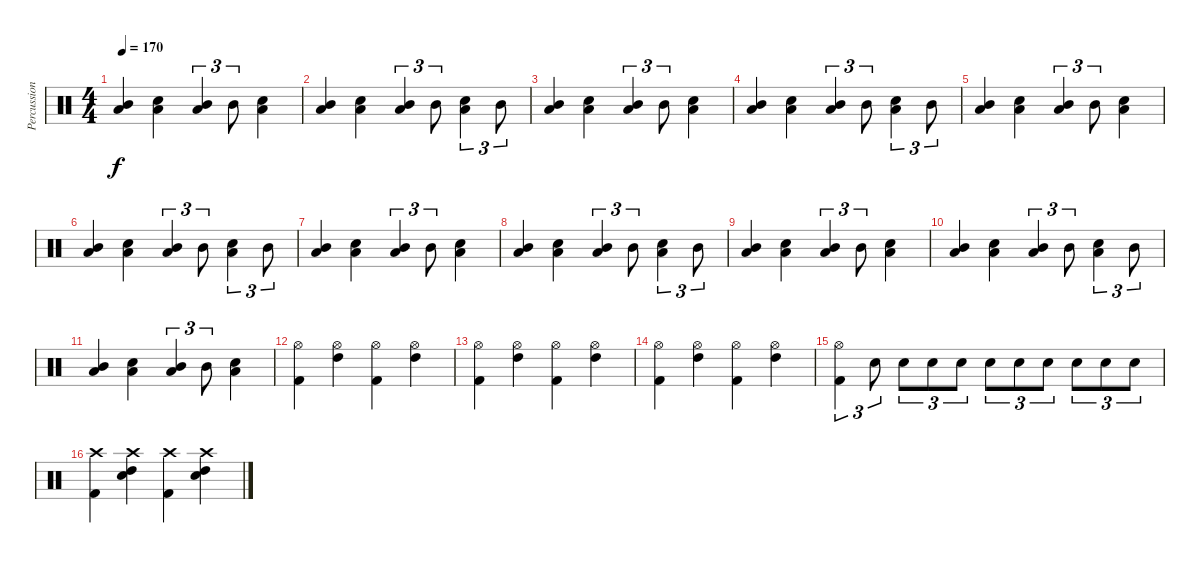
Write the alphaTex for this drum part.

\track ("Percussion" "Percussion") {instrument percussion}
\staff {score}
\articulation defaults
\ts (4 4)
\tempo 170
\clef neutral
\ks c
("Low Floor Tom (hit)" "Mid Tom (hit)").4{dy f} ("Low Floor Tom (hit)" "Snare (hit) 2").4 ("Low Floor Tom (hit)" "Mid Tom (hit)").4{tu (3 2)} "Mid Tom (hit)".8{tu (3 2)} ("Low Floor Tom (hit)" "Snare (hit) 2").4 |
("Low Floor Tom (hit)" "Mid Tom (hit)").4 ("Low Floor Tom (hit)" "Snare (hit) 2").4 ("Low Floor Tom (hit)" "Mid Tom (hit)").4{tu (3 2)} "Mid Tom (hit)".8{tu (3 2)} ("Low Floor Tom (hit)" "Snare (hit) 2").4{tu (3 2)} "Mid Tom (hit)".8{tu (3 2)} |
("Low Floor Tom (hit)" "Mid Tom (hit)").4 ("Low Floor Tom (hit)" "Snare (hit) 2").4 ("Low Floor Tom (hit)" "Mid Tom (hit)").4{tu (3 2)} "Mid Tom (hit)".8{tu (3 2)} ("Low Floor Tom (hit)" "Snare (hit) 2").4 |
("Low Floor Tom (hit)" "Mid Tom (hit)").4 ("Low Floor Tom (hit)" "Snare (hit) 2").4 ("Low Floor Tom (hit)" "Mid Tom (hit)").4{tu (3 2)} "Mid Tom (hit)".8{tu (3 2)} ("Low Floor Tom (hit)" "Snare (hit) 2").4{tu (3 2)} "Mid Tom (hit)".8{tu (3 2)} |
("Low Floor Tom (hit)" "Mid Tom (hit)").4 ("Low Floor Tom (hit)" "Snare (hit) 2").4 ("Low Floor Tom (hit)" "Mid Tom (hit)").4{tu (3 2)} "Mid Tom (hit)".8{tu (3 2)} ("Low Floor Tom (hit)" "Snare (hit) 2").4 |
("Low Floor Tom (hit)" "Mid Tom (hit)").4 ("Low Floor Tom (hit)" "Snare (hit) 2").4 ("Low Floor Tom (hit)" "Mid Tom (hit)").4{tu (3 2)} "Mid Tom (hit)".8{tu (3 2)} ("Low Floor Tom (hit)" "Snare (hit) 2").4{tu (3 2)} "Mid Tom (hit)".8{tu (3 2)} |
("Low Floor Tom (hit)" "Mid Tom (hit)").4 ("Low Floor Tom (hit)" "Snare (hit) 2").4 ("Low Floor Tom (hit)" "Mid Tom (hit)").4{tu (3 2)} "Mid Tom (hit)".8{tu (3 2)} ("Low Floor Tom (hit)" "Snare (hit) 2").4 |
("Low Floor Tom (hit)" "Mid Tom (hit)").4 ("Low Floor Tom (hit)" "Snare (hit) 2").4 ("Low Floor Tom (hit)" "Mid Tom (hit)").4{tu (3 2)} "Mid Tom (hit)".8{tu (3 2)} ("Low Floor Tom (hit)" "Snare (hit) 2").4{tu (3 2)} "Mid Tom (hit)".8{tu (3 2)} |
("Low Floor Tom (hit)" "Mid Tom (hit)").4 ("Low Floor Tom (hit)" "Snare (hit) 2").4 ("Low Floor Tom (hit)" "Mid Tom (hit)").4{tu (3 2)} "Mid Tom (hit)".8{tu (3 2)} ("Low Floor Tom (hit)" "Snare (hit) 2").4 |
("Low Floor Tom (hit)" "Mid Tom (hit)").4 ("Low Floor Tom (hit)" "Snare (hit) 2").4 ("Low Floor Tom (hit)" "Mid Tom (hit)").4{tu (3 2)} "Mid Tom (hit)".8{tu (3 2)} ("Low Floor Tom (hit)" "Snare (hit) 2").4{tu (3 2)} "Mid Tom (hit)".8{tu (3 2)} |
("Low Floor Tom (hit)" "Mid Tom (hit)").4 ("Low Floor Tom (hit)" "Snare (hit) 2").4 ("Low Floor Tom (hit)" "Mid Tom (hit)").4{tu (3 2)} "Mid Tom (hit)".8{tu (3 2)} ("Low Floor Tom (hit)" "Snare (hit) 2").4 |
("Hi-Hat (open)" "Kick (hit) 2").4 ("Hi-Hat (open)" "High Tom (hit)").4 ("Hi-Hat (open)" "Kick (hit) 2").4 ("Hi-Hat (open)" "High Tom (hit)").4 |
("Hi-Hat (open)" "Kick (hit) 2").4 ("Hi-Hat (open)" "High Tom (hit)").4 ("Hi-Hat (open)" "Kick (hit) 2").4 ("Hi-Hat (open)" "High Tom (hit)").4 |
("Hi-Hat (open)" "Kick (hit) 2").4 ("Hi-Hat (open)" "High Tom (hit)").4 ("Hi-Hat (open)" "Kick (hit) 2").4 ("Hi-Hat (open)" "High Tom (hit)").4 |
("Hi-Hat (open)" "Kick (hit) 2").4{tu (3 2)} "Snare (hit) 2".8{tu (3 2)} "Snare (hit) 2".8{tu (3 2)} "Snare (hit) 2".8{tu (3 2)} "Snare (hit) 2".8{tu (3 2)} "Snare (hit) 2".8{tu (3 2)} "Snare (hit) 2".8{tu (3 2)} "Snare (hit) 2".8{tu (3 2)} "Snare (hit) 2".8{tu (3 2)} "Snare (hit) 2".8{tu (3 2)} "Snare (hit) 2".8{tu (3 2)} |
("Crash high (hit)" "Kick (hit) 2").4 ("Crash high (hit)" "High Tom (hit)" "Snare (hit) 2").4 ("Crash high (hit)" "Kick (hit) 2").4 ("Crash high (hit)" "High Tom (hit)" "Snare (hit) 2").4
